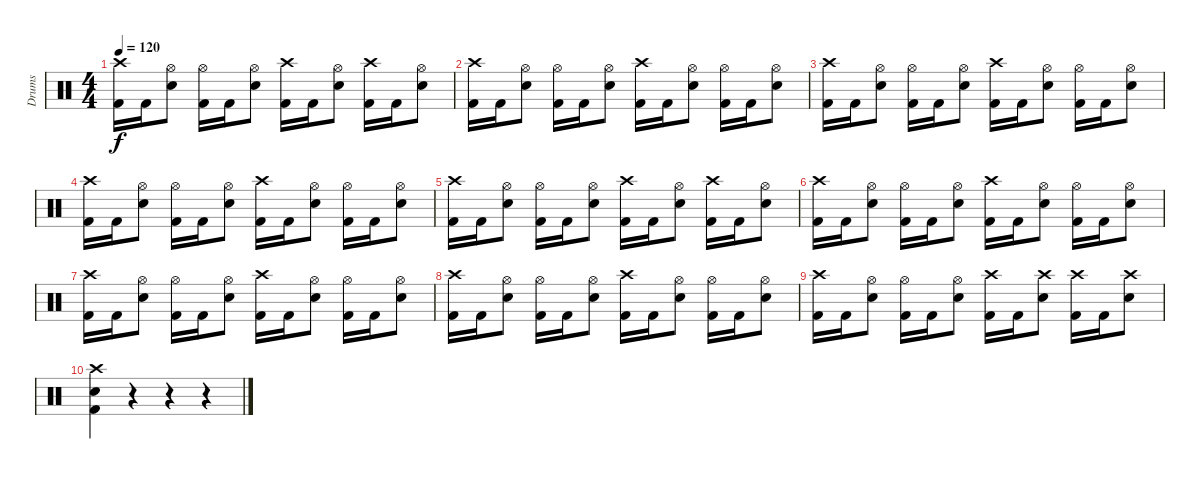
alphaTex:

\track ("Drums" "Drums") {instrument percussion}
\staff {score}
\articulation defaults
\ts (4 4)
\tempo 120
\clef neutral
\ks c
("Crash high (hit)" "Kick (hit) 2").16{dy f} "Kick (hit) 2".16 ("Hi-Hat (open)" "Electric Snare (hit)").8 ("Hi-Hat (open)" "Kick (hit) 2").16 "Kick (hit) 2".16 ("Hi-Hat (open)" "Electric Snare (hit)").8 ("Crash high (hit)" "Kick (hit) 2").16 "Kick (hit) 2".16 ("Hi-Hat (open)" "Electric Snare (hit)").8 ("Crash high (hit)" "Kick (hit) 2").16 "Kick (hit) 2".16 ("Hi-Hat (open)" "Electric Snare (hit)").8 |
("Crash high (hit)" "Kick (hit) 2").16 "Kick (hit) 2".16 ("Hi-Hat (open)" "Electric Snare (hit)").8 ("Hi-Hat (open)" "Kick (hit) 2").16 "Kick (hit) 2".16 ("Hi-Hat (open)" "Electric Snare (hit)").8 ("Crash high (hit)" "Kick (hit) 2").16 "Kick (hit) 2".16 ("Hi-Hat (open)" "Electric Snare (hit)").8 ("Hi-Hat (open)" "Kick (hit) 2").16 "Kick (hit) 2".16 ("Hi-Hat (open)" "Electric Snare (hit)").8 |
("Crash high (hit)" "Kick (hit) 2").16 "Kick (hit) 2".16 ("Hi-Hat (open)" "Electric Snare (hit)").8 ("Hi-Hat (open)" "Kick (hit) 2").16 "Kick (hit) 2".16 ("Hi-Hat (open)" "Electric Snare (hit)").8 ("Crash high (hit)" "Kick (hit) 2").16 "Kick (hit) 2".16 ("Hi-Hat (open)" "Electric Snare (hit)").8 ("Hi-Hat (open)" "Kick (hit) 2").16 "Kick (hit) 2".16 ("Hi-Hat (open)" "Electric Snare (hit)").8 |
("Crash high (hit)" "Kick (hit) 2").16 "Kick (hit) 2".16 ("Hi-Hat (open)" "Electric Snare (hit)").8 ("Hi-Hat (open)" "Kick (hit) 2").16 "Kick (hit) 2".16 ("Hi-Hat (open)" "Electric Snare (hit)").8 ("Crash high (hit)" "Kick (hit) 2").16 "Kick (hit) 2".16 ("Hi-Hat (open)" "Electric Snare (hit)").8 ("Hi-Hat (open)" "Kick (hit) 2").16 "Kick (hit) 2".16 ("Hi-Hat (open)" "Electric Snare (hit)").8 |
("Crash high (hit)" "Kick (hit) 2").16 "Kick (hit) 2".16 ("Hi-Hat (open)" "Electric Snare (hit)").8 ("Hi-Hat (open)" "Kick (hit) 2").16 "Kick (hit) 2".16 ("Hi-Hat (open)" "Electric Snare (hit)").8 ("Crash high (hit)" "Kick (hit) 2").16 "Kick (hit) 2".16 ("Hi-Hat (open)" "Electric Snare (hit)").8 ("Crash high (hit)" "Kick (hit) 2").16 "Kick (hit) 2".16 ("Hi-Hat (open)" "Electric Snare (hit)").8 |
("Crash high (hit)" "Kick (hit) 2").16 "Kick (hit) 2".16 ("Hi-Hat (open)" "Electric Snare (hit)").8 ("Hi-Hat (open)" "Kick (hit) 2").16 "Kick (hit) 2".16 ("Hi-Hat (open)" "Electric Snare (hit)").8 ("Crash high (hit)" "Kick (hit) 2").16 "Kick (hit) 2".16 ("Hi-Hat (open)" "Electric Snare (hit)").8 ("Hi-Hat (open)" "Kick (hit) 2").16 "Kick (hit) 2".16 ("Hi-Hat (open)" "Electric Snare (hit)").8 |
("Crash high (hit)" "Kick (hit) 2").16 "Kick (hit) 2".16 ("Hi-Hat (open)" "Electric Snare (hit)").8 ("Hi-Hat (open)" "Kick (hit) 2").16 "Kick (hit) 2".16 ("Hi-Hat (open)" "Electric Snare (hit)").8 ("Crash high (hit)" "Kick (hit) 2").16 "Kick (hit) 2".16 ("Hi-Hat (open)" "Electric Snare (hit)").8 ("Hi-Hat (open)" "Kick (hit) 2").16 "Kick (hit) 2".16 ("Hi-Hat (open)" "Electric Snare (hit)").8 |
("Crash high (hit)" "Kick (hit) 2").16 "Kick (hit) 2".16 ("Hi-Hat (open)" "Electric Snare (hit)").8 ("Hi-Hat (open)" "Kick (hit) 2").16 "Kick (hit) 2".16 ("Hi-Hat (open)" "Electric Snare (hit)").8 ("Crash high (hit)" "Kick (hit) 2").16 "Kick (hit) 2".16 ("Hi-Hat (open)" "Electric Snare (hit)").8 ("Hi-Hat (open)" "Kick (hit) 2").16 "Kick (hit) 2".16 ("Hi-Hat (open)" "Electric Snare (hit)").8 |
("Crash high (hit)" "Kick (hit) 2").16 "Kick (hit) 2".16 ("Hi-Hat (open)" "Electric Snare (hit)").8 ("Hi-Hat (open)" "Kick (hit) 2").16 "Kick (hit) 2".16 ("Hi-Hat (open)" "Electric Snare (hit)").8 ("Crash high (hit)" "Kick (hit) 2").16 "Kick (hit) 2".16 ("Crash high (hit)" "Electric Snare (hit)").8 ("Crash high (hit)" "Kick (hit) 2").16 "Kick (hit) 2".16 ("Crash high (hit)" "Electric Snare (hit)").8 |
("Crash high (hit)" "Electric Snare (hit)" "Kick (hit) 2").4 r.4 r.4 r.4
